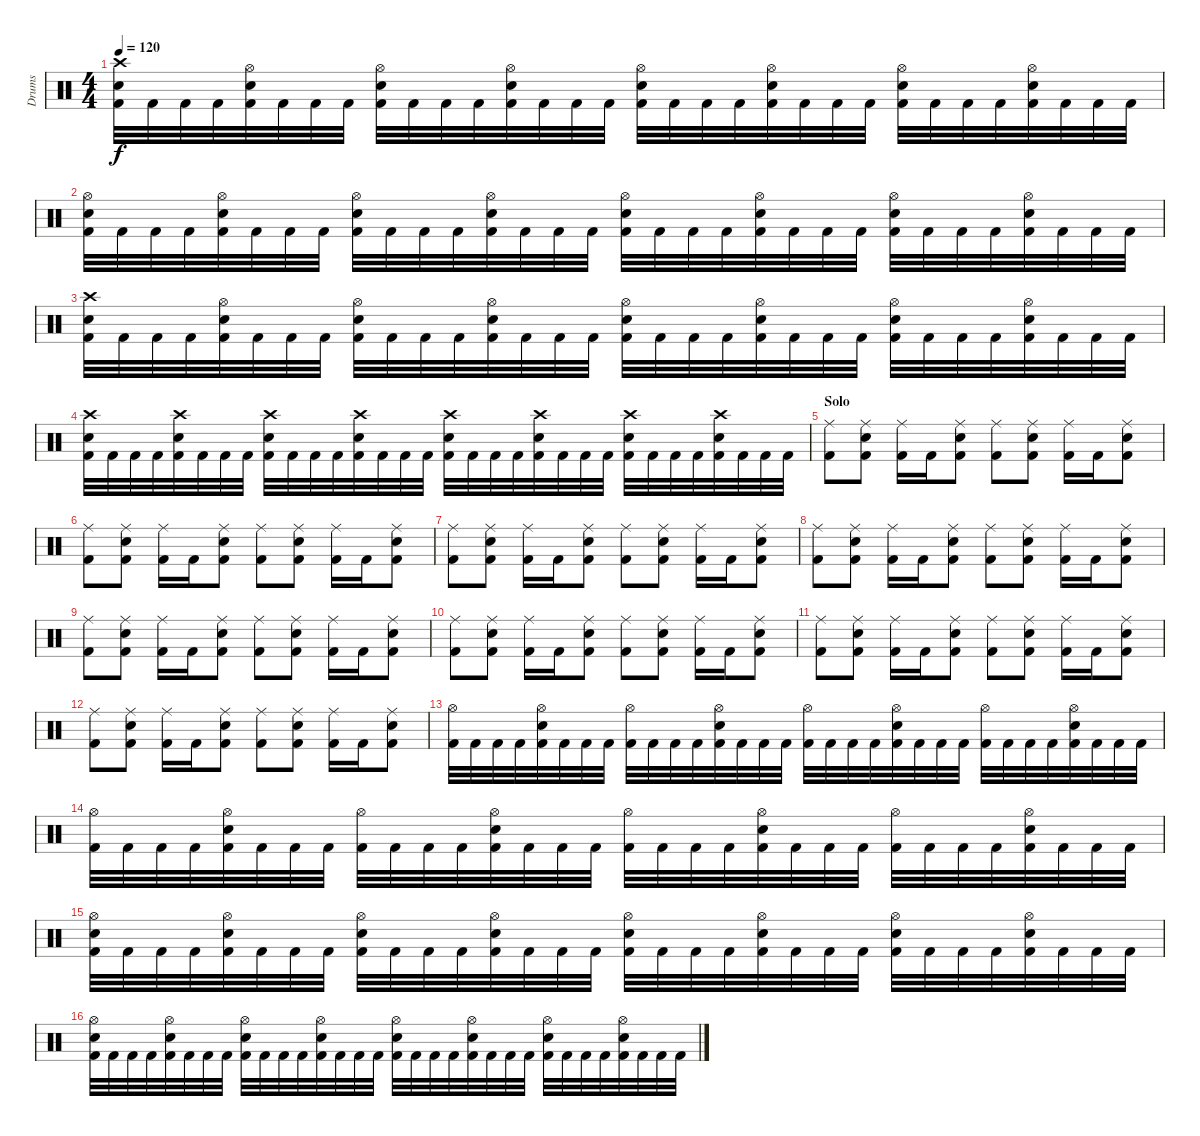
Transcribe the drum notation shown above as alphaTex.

\track ("Drums" "Drums") {instrument percussion}
\staff {score}
\articulation defaults
\ts (4 4)
\tempo 120
\clef neutral
\ks c
("Crash high (hit)" "Electric Snare (hit)" "Kick (hit) 2").32{dy f} "Kick (hit) 2".32 "Kick (hit) 2".32 "Kick (hit) 2".32 ("Hi-Hat (open)" "Electric Snare (hit)" "Kick (hit) 2").32 "Kick (hit) 2".32 "Kick (hit) 2".32 "Kick (hit) 2".32 ("Hi-Hat (open)" "Electric Snare (hit)" "Kick (hit) 2").32 "Kick (hit) 2".32 "Kick (hit) 2".32 "Kick (hit) 2".32 ("Hi-Hat (open)" "Electric Snare (hit)" "Kick (hit) 2").32 "Kick (hit) 2".32 "Kick (hit) 2".32 "Kick (hit) 2".32 ("Hi-Hat (open)" "Electric Snare (hit)" "Kick (hit) 2").32 "Kick (hit) 2".32 "Kick (hit) 2".32 "Kick (hit) 2".32 ("Hi-Hat (open)" "Electric Snare (hit)" "Kick (hit) 2").32 "Kick (hit) 2".32 "Kick (hit) 2".32 "Kick (hit) 2".32 ("Hi-Hat (open)" "Electric Snare (hit)" "Kick (hit) 2").32 "Kick (hit) 2".32 "Kick (hit) 2".32 "Kick (hit) 2".32 ("Hi-Hat (open)" "Electric Snare (hit)" "Kick (hit) 2").32 "Kick (hit) 2".32 "Kick (hit) 2".32 "Kick (hit) 2".32 |
("Hi-Hat (open)" "Electric Snare (hit)" "Kick (hit) 2").32 "Kick (hit) 2".32 "Kick (hit) 2".32 "Kick (hit) 2".32 ("Hi-Hat (open)" "Electric Snare (hit)" "Kick (hit) 2").32 "Kick (hit) 2".32 "Kick (hit) 2".32 "Kick (hit) 2".32 ("Hi-Hat (open)" "Electric Snare (hit)" "Kick (hit) 2").32 "Kick (hit) 2".32 "Kick (hit) 2".32 "Kick (hit) 2".32 ("Hi-Hat (open)" "Electric Snare (hit)" "Kick (hit) 2").32 "Kick (hit) 2".32 "Kick (hit) 2".32 "Kick (hit) 2".32 ("Hi-Hat (open)" "Electric Snare (hit)" "Kick (hit) 2").32 "Kick (hit) 2".32 "Kick (hit) 2".32 "Kick (hit) 2".32 ("Hi-Hat (open)" "Electric Snare (hit)" "Kick (hit) 2").32 "Kick (hit) 2".32 "Kick (hit) 2".32 "Kick (hit) 2".32 ("Hi-Hat (open)" "Electric Snare (hit)" "Kick (hit) 2").32 "Kick (hit) 2".32 "Kick (hit) 2".32 "Kick (hit) 2".32 ("Hi-Hat (open)" "Electric Snare (hit)" "Kick (hit) 2").32 "Kick (hit) 2".32 "Kick (hit) 2".32 "Kick (hit) 2".32 |
("Crash high (hit)" "Electric Snare (hit)" "Kick (hit) 2").32 "Kick (hit) 2".32 "Kick (hit) 2".32 "Kick (hit) 2".32 ("Hi-Hat (open)" "Electric Snare (hit)" "Kick (hit) 2").32 "Kick (hit) 2".32 "Kick (hit) 2".32 "Kick (hit) 2".32 ("Hi-Hat (open)" "Electric Snare (hit)" "Kick (hit) 2").32 "Kick (hit) 2".32 "Kick (hit) 2".32 "Kick (hit) 2".32 ("Hi-Hat (open)" "Electric Snare (hit)" "Kick (hit) 2").32 "Kick (hit) 2".32 "Kick (hit) 2".32 "Kick (hit) 2".32 ("Hi-Hat (open)" "Electric Snare (hit)" "Kick (hit) 2").32 "Kick (hit) 2".32 "Kick (hit) 2".32 "Kick (hit) 2".32 ("Hi-Hat (open)" "Electric Snare (hit)" "Kick (hit) 2").32 "Kick (hit) 2".32 "Kick (hit) 2".32 "Kick (hit) 2".32 ("Hi-Hat (open)" "Electric Snare (hit)" "Kick (hit) 2").32 "Kick (hit) 2".32 "Kick (hit) 2".32 "Kick (hit) 2".32 ("Hi-Hat (open)" "Electric Snare (hit)" "Kick (hit) 2").32 "Kick (hit) 2".32 "Kick (hit) 2".32 "Kick (hit) 2".32 |
("Crash high (hit)" "Electric Snare (hit)" "Kick (hit) 2").32 "Kick (hit) 2".32 "Kick (hit) 2".32 "Kick (hit) 2".32 ("Crash high (hit)" "Electric Snare (hit)" "Kick (hit) 2").32 "Kick (hit) 2".32 "Kick (hit) 2".32 "Kick (hit) 2".32 ("Crash high (hit)" "Electric Snare (hit)" "Kick (hit) 2").32 "Kick (hit) 2".32 "Kick (hit) 2".32 "Kick (hit) 2".32 ("Crash high (hit)" "Electric Snare (hit)" "Kick (hit) 2").32 "Kick (hit) 2".32 "Kick (hit) 2".32 "Kick (hit) 2".32 ("Crash high (hit)" "Electric Snare (hit)" "Kick (hit) 2").32 "Kick (hit) 2".32 "Kick (hit) 2".32 "Kick (hit) 2".32 ("Crash high (hit)" "Electric Snare (hit)" "Kick (hit) 2").32 "Kick (hit) 2".32 "Kick (hit) 2".32 "Kick (hit) 2".32 ("Crash high (hit)" "Electric Snare (hit)" "Kick (hit) 2").32 "Kick (hit) 2".32 "Kick (hit) 2".32 "Kick (hit) 2".32 ("Crash high (hit)" "Electric Snare (hit)" "Kick (hit) 2").32 "Kick (hit) 2".32 "Kick (hit) 2".32 "Kick (hit) 2".32 |
\section ("" "Solo")
("Ride (middle)" "Kick (hit) 2").8 ("Ride (middle)" "Electric Snare (hit)" "Kick (hit) 2").8 ("Ride (middle)" "Kick (hit) 2").16 "Kick (hit) 2".16 ("Ride (middle)" "Electric Snare (hit)" "Kick (hit) 2").8 ("Ride (middle)" "Kick (hit) 2").8 ("Ride (middle)" "Electric Snare (hit)" "Kick (hit) 2").8 ("Ride (middle)" "Kick (hit) 2").16 "Kick (hit) 2".16 ("Ride (middle)" "Electric Snare (hit)" "Kick (hit) 2").8 |
("Ride (middle)" "Kick (hit) 2").8 ("Ride (middle)" "Electric Snare (hit)" "Kick (hit) 2").8 ("Ride (middle)" "Kick (hit) 2").16 "Kick (hit) 2".16 ("Ride (middle)" "Electric Snare (hit)" "Kick (hit) 2").8 ("Ride (middle)" "Kick (hit) 2").8 ("Ride (middle)" "Electric Snare (hit)" "Kick (hit) 2").8 ("Ride (middle)" "Kick (hit) 2").16 "Kick (hit) 2".16 ("Ride (middle)" "Electric Snare (hit)" "Kick (hit) 2").8 |
("Ride (middle)" "Kick (hit) 2").8 ("Ride (middle)" "Electric Snare (hit)" "Kick (hit) 2").8 ("Ride (middle)" "Kick (hit) 2").16 "Kick (hit) 2".16 ("Ride (middle)" "Electric Snare (hit)" "Kick (hit) 2").8 ("Ride (middle)" "Kick (hit) 2").8 ("Ride (middle)" "Electric Snare (hit)" "Kick (hit) 2").8 ("Ride (middle)" "Kick (hit) 2").16 "Kick (hit) 2".16 ("Ride (middle)" "Electric Snare (hit)" "Kick (hit) 2").8 |
("Ride (middle)" "Kick (hit) 2").8 ("Ride (middle)" "Electric Snare (hit)" "Kick (hit) 2").8 ("Ride (middle)" "Kick (hit) 2").16 "Kick (hit) 2".16 ("Ride (middle)" "Electric Snare (hit)" "Kick (hit) 2").8 ("Ride (middle)" "Kick (hit) 2").8 ("Ride (middle)" "Electric Snare (hit)" "Kick (hit) 2").8 ("Ride (middle)" "Kick (hit) 2").16 "Kick (hit) 2".16 ("Ride (middle)" "Electric Snare (hit)" "Kick (hit) 2").8 |
("Ride (middle)" "Kick (hit) 2").8 ("Ride (middle)" "Electric Snare (hit)" "Kick (hit) 2").8 ("Ride (middle)" "Kick (hit) 2").16 "Kick (hit) 2".16 ("Ride (middle)" "Electric Snare (hit)" "Kick (hit) 2").8 ("Ride (middle)" "Kick (hit) 2").8 ("Ride (middle)" "Electric Snare (hit)" "Kick (hit) 2").8 ("Ride (middle)" "Kick (hit) 2").16 "Kick (hit) 2".16 ("Ride (middle)" "Electric Snare (hit)" "Kick (hit) 2").8 |
("Ride (middle)" "Kick (hit) 2").8 ("Ride (middle)" "Electric Snare (hit)" "Kick (hit) 2").8 ("Ride (middle)" "Kick (hit) 2").16 "Kick (hit) 2".16 ("Ride (middle)" "Electric Snare (hit)" "Kick (hit) 2").8 ("Ride (middle)" "Kick (hit) 2").8 ("Ride (middle)" "Electric Snare (hit)" "Kick (hit) 2").8 ("Ride (middle)" "Kick (hit) 2").16 "Kick (hit) 2".16 ("Ride (middle)" "Electric Snare (hit)" "Kick (hit) 2").8 |
("Ride (middle)" "Kick (hit) 2").8 ("Ride (middle)" "Electric Snare (hit)" "Kick (hit) 2").8 ("Ride (middle)" "Kick (hit) 2").16 "Kick (hit) 2".16 ("Ride (middle)" "Electric Snare (hit)" "Kick (hit) 2").8 ("Ride (middle)" "Kick (hit) 2").8 ("Ride (middle)" "Electric Snare (hit)" "Kick (hit) 2").8 ("Ride (middle)" "Kick (hit) 2").16 "Kick (hit) 2".16 ("Ride (middle)" "Electric Snare (hit)" "Kick (hit) 2").8 |
("Ride (middle)" "Kick (hit) 2").8 ("Ride (middle)" "Electric Snare (hit)" "Kick (hit) 2").8 ("Ride (middle)" "Kick (hit) 2").16 "Kick (hit) 2".16 ("Ride (middle)" "Electric Snare (hit)" "Kick (hit) 2").8 ("Ride (middle)" "Kick (hit) 2").8 ("Ride (middle)" "Electric Snare (hit)" "Kick (hit) 2").8 ("Ride (middle)" "Kick (hit) 2").16 "Kick (hit) 2".16 ("Ride (middle)" "Electric Snare (hit)" "Kick (hit) 2").8 |
("Hi-Hat (open)" "Kick (hit) 2").32 "Kick (hit) 2".32 "Kick (hit) 2".32 "Kick (hit) 2".32 ("Hi-Hat (open)" "Electric Snare (hit)" "Kick (hit) 2").32 "Kick (hit) 2".32 "Kick (hit) 2".32 "Kick (hit) 2".32 ("Hi-Hat (open)" "Kick (hit) 2").32 "Kick (hit) 2".32 "Kick (hit) 2".32 "Kick (hit) 2".32 ("Hi-Hat (open)" "Electric Snare (hit)" "Kick (hit) 2").32 "Kick (hit) 2".32 "Kick (hit) 2".32 "Kick (hit) 2".32 ("Hi-Hat (open)" "Kick (hit) 2").32 "Kick (hit) 2".32 "Kick (hit) 2".32 "Kick (hit) 2".32 ("Hi-Hat (open)" "Electric Snare (hit)" "Kick (hit) 2").32 "Kick (hit) 2".32 "Kick (hit) 2".32 "Kick (hit) 2".32 ("Hi-Hat (open)" "Kick (hit) 2").32 "Kick (hit) 2".32 "Kick (hit) 2".32 "Kick (hit) 2".32 ("Hi-Hat (open)" "Electric Snare (hit)" "Kick (hit) 2").32 "Kick (hit) 2".32 "Kick (hit) 2".32 "Kick (hit) 2".32 |
("Hi-Hat (open)" "Kick (hit) 2").32 "Kick (hit) 2".32 "Kick (hit) 2".32 "Kick (hit) 2".32 ("Hi-Hat (open)" "Electric Snare (hit)" "Kick (hit) 2").32 "Kick (hit) 2".32 "Kick (hit) 2".32 "Kick (hit) 2".32 ("Hi-Hat (open)" "Kick (hit) 2").32 "Kick (hit) 2".32 "Kick (hit) 2".32 "Kick (hit) 2".32 ("Hi-Hat (open)" "Electric Snare (hit)" "Kick (hit) 2").32 "Kick (hit) 2".32 "Kick (hit) 2".32 "Kick (hit) 2".32 ("Hi-Hat (open)" "Kick (hit) 2").32 "Kick (hit) 2".32 "Kick (hit) 2".32 "Kick (hit) 2".32 ("Hi-Hat (open)" "Electric Snare (hit)" "Kick (hit) 2").32 "Kick (hit) 2".32 "Kick (hit) 2".32 "Kick (hit) 2".32 ("Hi-Hat (open)" "Kick (hit) 2").32 "Kick (hit) 2".32 "Kick (hit) 2".32 "Kick (hit) 2".32 ("Hi-Hat (open)" "Electric Snare (hit)" "Kick (hit) 2").32 "Kick (hit) 2".32 "Kick (hit) 2".32 "Kick (hit) 2".32 |
("Hi-Hat (open)" "Electric Snare (hit)" "Kick (hit) 2").32 "Kick (hit) 2".32 "Kick (hit) 2".32 "Kick (hit) 2".32 ("Hi-Hat (open)" "Electric Snare (hit)" "Kick (hit) 2").32 "Kick (hit) 2".32 "Kick (hit) 2".32 "Kick (hit) 2".32 ("Hi-Hat (open)" "Electric Snare (hit)" "Kick (hit) 2").32 "Kick (hit) 2".32 "Kick (hit) 2".32 "Kick (hit) 2".32 ("Hi-Hat (open)" "Electric Snare (hit)" "Kick (hit) 2").32 "Kick (hit) 2".32 "Kick (hit) 2".32 "Kick (hit) 2".32 ("Hi-Hat (open)" "Electric Snare (hit)" "Kick (hit) 2").32 "Kick (hit) 2".32 "Kick (hit) 2".32 "Kick (hit) 2".32 ("Hi-Hat (open)" "Electric Snare (hit)" "Kick (hit) 2").32 "Kick (hit) 2".32 "Kick (hit) 2".32 "Kick (hit) 2".32 ("Hi-Hat (open)" "Electric Snare (hit)" "Kick (hit) 2").32 "Kick (hit) 2".32 "Kick (hit) 2".32 "Kick (hit) 2".32 ("Hi-Hat (open)" "Electric Snare (hit)" "Kick (hit) 2").32 "Kick (hit) 2".32 "Kick (hit) 2".32 "Kick (hit) 2".32 |
("Hi-Hat (open)" "Electric Snare (hit)" "Kick (hit) 2").32 "Kick (hit) 2".32 "Kick (hit) 2".32 "Kick (hit) 2".32 ("Hi-Hat (open)" "Electric Snare (hit)" "Kick (hit) 2").32 "Kick (hit) 2".32 "Kick (hit) 2".32 "Kick (hit) 2".32 ("Hi-Hat (open)" "Electric Snare (hit)" "Kick (hit) 2").32 "Kick (hit) 2".32 "Kick (hit) 2".32 "Kick (hit) 2".32 ("Hi-Hat (open)" "Electric Snare (hit)" "Kick (hit) 2").32 "Kick (hit) 2".32 "Kick (hit) 2".32 "Kick (hit) 2".32 ("Hi-Hat (open)" "Electric Snare (hit)" "Kick (hit) 2").32 "Kick (hit) 2".32 "Kick (hit) 2".32 "Kick (hit) 2".32 ("Hi-Hat (open)" "Electric Snare (hit)" "Kick (hit) 2").32 "Kick (hit) 2".32 "Kick (hit) 2".32 "Kick (hit) 2".32 ("Hi-Hat (open)" "Electric Snare (hit)" "Kick (hit) 2").32 "Kick (hit) 2".32 "Kick (hit) 2".32 "Kick (hit) 2".32 ("Hi-Hat (open)" "Electric Snare (hit)" "Kick (hit) 2").32 "Kick (hit) 2".32 "Kick (hit) 2".32 "Kick (hit) 2".32
